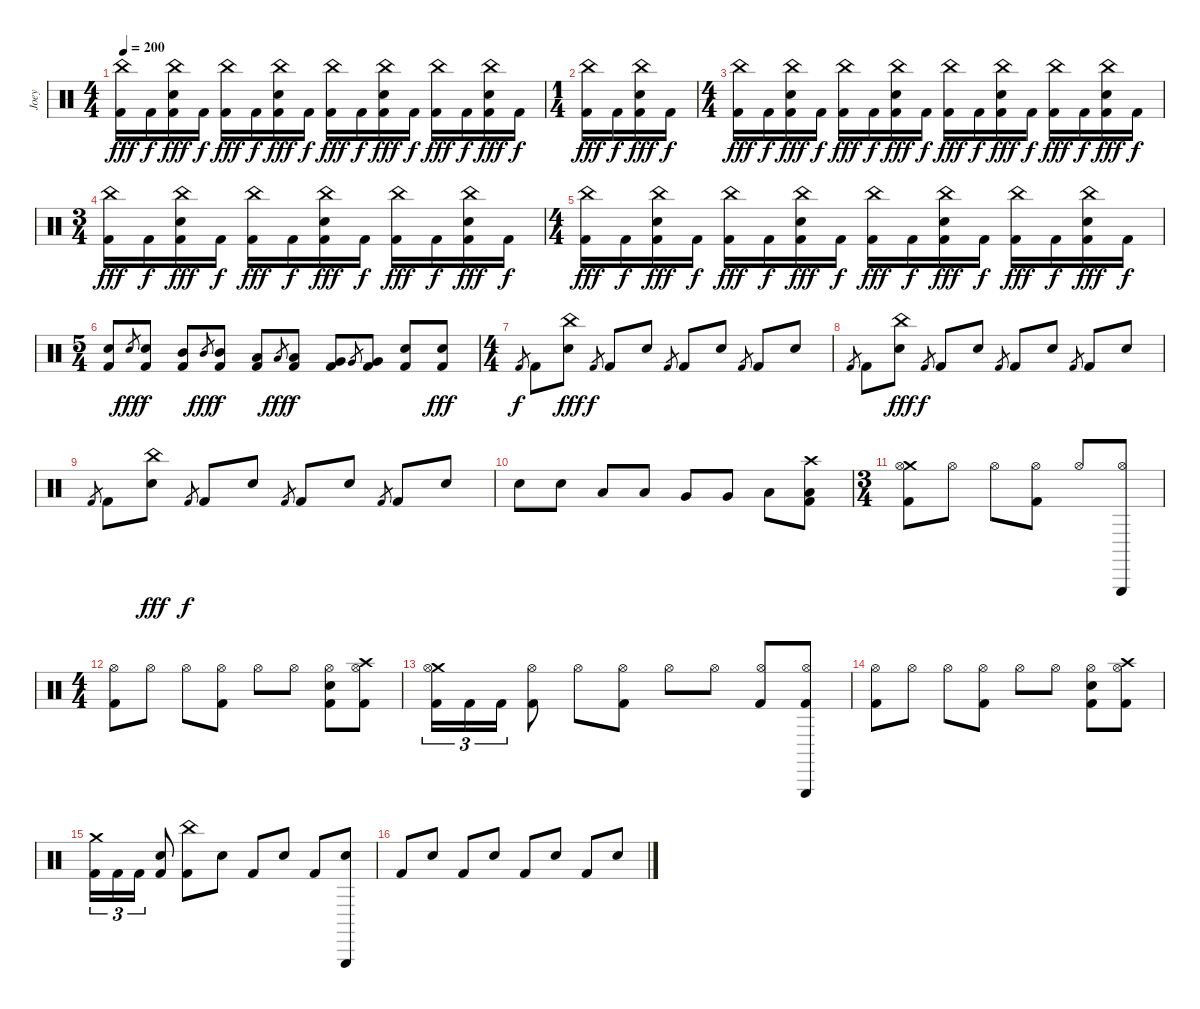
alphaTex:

\track ("Joey" "Joey") {instrument percussion}
\staff {score}
\articulation defaults
\ts (4 4)
\tempo 200
\clef neutral
\ks c
("China (hit)" "Kick (hit) 2").16{dy fff} "Kick (hit) 2".16{dy f} ("China (hit)" "Electric Snare (hit)" "Kick (hit) 2").16{dy fff} "Kick (hit) 2".16{dy f} ("China (hit)" "Kick (hit) 2").16{dy fff} "Kick (hit) 2".16{dy f} ("China (hit)" "Electric Snare (hit)" "Kick (hit) 2").16{dy fff} "Kick (hit) 2".16{dy f} ("China (hit)" "Kick (hit) 2").16{dy fff} "Kick (hit) 2".16{dy f} ("China (hit)" "Electric Snare (hit)" "Kick (hit) 2").16{dy fff} "Kick (hit) 2".16{dy f} ("China (hit)" "Kick (hit) 2").16{dy fff} "Kick (hit) 2".16{dy f} ("China (hit)" "Electric Snare (hit)" "Kick (hit) 2").16{dy fff} "Kick (hit) 2".16{dy f} |
\ts (1 4)
("China (hit)" "Kick (hit) 2").16{dy fff} "Kick (hit) 2".16{dy f} ("China (hit)" "Electric Snare (hit)" "Kick (hit) 2").16{dy fff} "Kick (hit) 2".16{dy f} |
\ts (4 4)
("China (hit)" "Kick (hit) 2").16{dy fff} "Kick (hit) 2".16{dy f} ("China (hit)" "Electric Snare (hit)" "Kick (hit) 2").16{dy fff} "Kick (hit) 2".16{dy f} ("China (hit)" "Kick (hit) 2").16{dy fff} "Kick (hit) 2".16{dy f} ("China (hit)" "Electric Snare (hit)" "Kick (hit) 2").16{dy fff} "Kick (hit) 2".16{dy f} ("China (hit)" "Kick (hit) 2").16{dy fff} "Kick (hit) 2".16{dy f} ("China (hit)" "Electric Snare (hit)" "Kick (hit) 2").16{dy fff} "Kick (hit) 2".16{dy f} ("China (hit)" "Kick (hit) 2").16{dy fff} "Kick (hit) 2".16{dy f} ("China (hit)" "Electric Snare (hit)" "Kick (hit) 2").16{dy fff} "Kick (hit) 2".16{dy f} |
\ts (3 4)
("China (hit)" "Kick (hit) 2").16{dy fff} "Kick (hit) 2".16{dy f} ("China (hit)" "Electric Snare (hit)" "Kick (hit) 2").16{dy fff} "Kick (hit) 2".16{dy f} ("China (hit)" "Kick (hit) 2").16{dy fff} "Kick (hit) 2".16{dy f} ("China (hit)" "Electric Snare (hit)" "Kick (hit) 2").16{dy fff} "Kick (hit) 2".16{dy f} ("China (hit)" "Kick (hit) 2").16{dy fff} "Kick (hit) 2".16{dy f} ("China (hit)" "Electric Snare (hit)" "Kick (hit) 2").16{dy fff} "Kick (hit) 2".16{dy f} |
\ts (4 4)
("China (hit)" "Kick (hit) 2").16{dy fff} "Kick (hit) 2".16{dy f} ("China (hit)" "Electric Snare (hit)" "Kick (hit) 2").16{dy fff} "Kick (hit) 2".16{dy f} ("China (hit)" "Kick (hit) 2").16{dy fff} "Kick (hit) 2".16{dy f} ("China (hit)" "Electric Snare (hit)" "Kick (hit) 2").16{dy fff} "Kick (hit) 2".16{dy f} ("China (hit)" "Kick (hit) 2").16{dy fff} "Kick (hit) 2".16{dy f} ("China (hit)" "Electric Snare (hit)" "Kick (hit) 2").16{dy fff} "Kick (hit) 2".16{dy f} ("China (hit)" "Kick (hit) 2").16{dy fff} "Kick (hit) 2".16{dy f} ("China (hit)" "Electric Snare (hit)" "Kick (hit) 2").16{dy fff} "Kick (hit) 2".16{dy f} |
\ts (5 4)
("Electric Snare (hit)" "Kick (hit) 2").8 "Electric Snare (hit)".8{gr dy fff} ("Electric Snare (hit)" "Kick (hit) 2").8{dy f} ("Mid Tom (hit)" "Kick (hit) 2").8 "Mid Tom (hit)".8{gr dy fff} ("Mid Tom (hit)" "Kick (hit) 2").8{dy f} ("Low Tom (hit)" "Kick (hit) 2").8 "Low Tom (hit)".8{gr dy fff} ("Low Tom (hit)" "Kick (hit) 2").8{dy f} ("Very Low Tom (hit)" "Kick (hit) 2").8 "Very Low Tom (hit)".8{gr} ("Very Low Tom (hit)" "Kick (hit) 2").8 ("Electric Snare (hit)" "Kick (hit) 2").8 ("Electric Snare (hit)" "Kick (hit) 2").8{dy fff} |
\ts (4 4)
"Kick (hit) 2".8{gr dy f} "Kick (hit) 2".8 ("China (hit)" "Electric Snare (hit)").8{dy fff} "Kick (hit) 2".8{gr dy f} "Kick (hit) 2".8 "Electric Snare (hit)".8 "Kick (hit) 2".8{gr} "Kick (hit) 2".8 "Electric Snare (hit)".8 "Kick (hit) 2".8{gr} "Kick (hit) 2".8 "Electric Snare (hit)".8 |
"Kick (hit) 2".8{gr} "Kick (hit) 2".8 ("China (hit)" "Electric Snare (hit)").8{dy fff} "Kick (hit) 2".8{gr dy f} "Kick (hit) 2".8 "Electric Snare (hit)".8 "Kick (hit) 2".8{gr} "Kick (hit) 2".8 "Electric Snare (hit)".8 "Kick (hit) 2".8{gr} "Kick (hit) 2".8 "Electric Snare (hit)".8 |
"Kick (hit) 2".8{gr} "Kick (hit) 2".8 ("China (hit)" "Electric Snare (hit)").8{dy fff} "Kick (hit) 2".8{gr dy f} "Kick (hit) 2".8 "Electric Snare (hit)".8 "Kick (hit) 2".8{gr} "Kick (hit) 2".8 "Electric Snare (hit)".8 "Kick (hit) 2".8{gr} "Kick (hit) 2".8 "Electric Snare (hit)".8 |
"Electric Snare (hit)".8 "Electric Snare (hit)".8 "Low Tom (hit)".8 "Low Tom (hit)".8 "Very Low Tom (hit)".8 "Very Low Tom (hit)".8 "Low Floor Tom (hit)".8 ("Crash high (hit)" "Low Floor Tom (hit)" "Kick (hit) 2").8 |
\ts (3 4)
("Crash medium (hit)" "Hi-Hat (open)" "Kick (hit) 2").8 "Hi-Hat (open)".8 "Hi-Hat (open)".8 ("Hi-Hat (open)" "Kick (hit) 2").8 "Hi-Hat (open)".8 ("Triangle (hit)" "Hi-Hat (open)").8 |
\ts (4 4)
("Hi-Hat (open)" "Kick (hit) 2").8 "Hi-Hat (open)".8 "Hi-Hat (open)".8 ("Hi-Hat (open)" "Kick (hit) 2").8 "Hi-Hat (open)".8 "Hi-Hat (open)".8 ("Hi-Hat (open)" "Electric Snare (hit)" "Kick (hit) 2").8 ("Crash high (hit)" "Hi-Hat (open)" "Kick (hit) 2").8 |
("Crash medium (hit)" "Hi-Hat (open)" "Kick (hit) 2").16{tu (3 2)} "Kick (hit) 2".16{tu (3 2)} "Kick (hit) 2".16{tu (3 2)} ("Hi-Hat (open)" "Kick (hit) 2").8 "Hi-Hat (open)".8 ("Hi-Hat (open)" "Kick (hit) 2").8 "Hi-Hat (open)".8 "Hi-Hat (open)".8 ("Hi-Hat (open)" "Kick (hit) 2").8 ("Triangle (hit)" "Hi-Hat (open)" "Kick (hit) 2").8 |
("Hi-Hat (open)" "Kick (hit) 2").8 "Hi-Hat (open)".8 "Hi-Hat (open)".8 ("Hi-Hat (open)" "Kick (hit) 2").8 "Hi-Hat (open)".8 "Hi-Hat (open)".8 ("Hi-Hat (open)" "Electric Snare (hit)" "Kick (hit) 2").8 ("Crash high (hit)" "Hi-Hat (open)" "Kick (hit) 2").8 |
("Crash medium (hit)" "Kick (hit) 2").16{tu (3 2)} "Kick (hit) 2".16{tu (3 2)} "Kick (hit) 2".16{tu (3 2)} ("Electric Snare (hit)" "Kick (hit) 2").8 ("China (hit)" "Kick (hit) 2").8 "Electric Snare (hit)".8 "Kick (hit) 2".8 "Electric Snare (hit)".8 "Kick (hit) 2".8 ("Triangle (hit)" "Electric Snare (hit)").8 |
"Kick (hit) 2".8 "Electric Snare (hit)".8 "Kick (hit) 2".8 "Electric Snare (hit)".8 "Kick (hit) 2".8 "Electric Snare (hit)".8 "Kick (hit) 2".8 "Electric Snare (hit)".8
